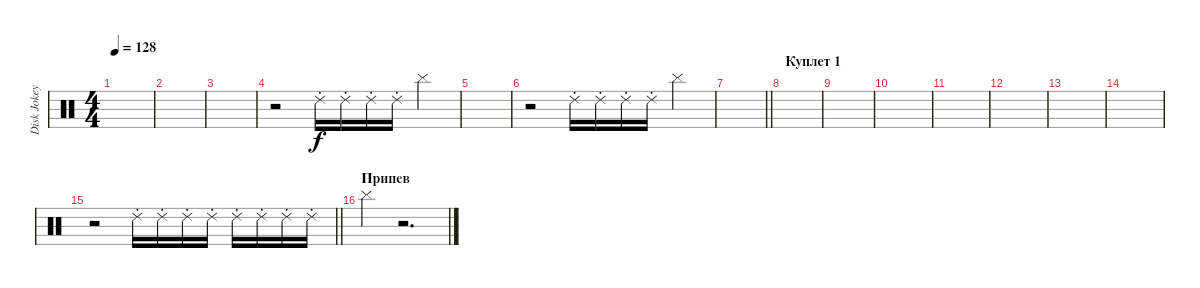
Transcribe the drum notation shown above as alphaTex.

\track ("Disk Jokey" "Disk Jokey") {instrument percussion}
\staff {score}
\articulation defaults
\ts (4 4)
\tempo 128
\clef neutral
\ks c
|
|
|
r.2 "Ride (choke) 2".16 "Ride (choke) 2".16 "Ride (choke) 2".16 "Ride (choke) 2".16 "Cymbal (hit)".4 |
|
r.2 "Ride (choke) 2".16 "Ride (choke) 2".16 "Ride (choke) 2".16 "Ride (choke) 2".16 "Cymbal (hit)".4 |
\barLineRight lightlight
|
\section ("" "Куплет 1")
|
|
|
|
|
|
|
\barLineRight lightlight
r.2 "Ride (choke) 2".16 "Ride (choke) 2".16 "Ride (choke) 2".16 "Ride (choke) 2".16 "Ride (choke) 2".16 "Ride (choke) 2".16 "Ride (choke) 2".16 "Ride (choke) 2".16 |
\section ("" "Припев")
"Cymbal (hit)".4 r.2{d}
